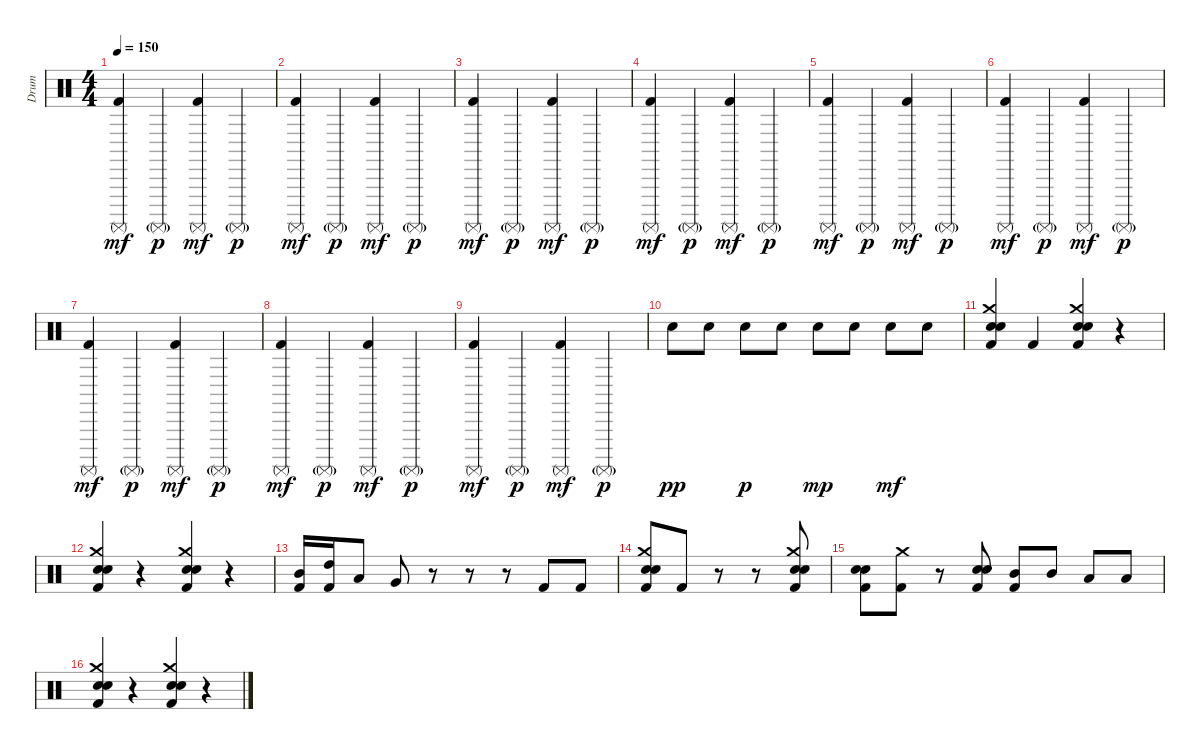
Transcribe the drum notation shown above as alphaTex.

\track ("Drum" "Drum") {instrument percussion}
\staff {score}
\articulation defaults
\ts (4 4)
\tempo 150
\clef neutral
\ks c
("Surdo (mute)" "Kick (hit) 2").4{dy mf} "Surdo (mute)"{g}.4{dy p} ("Surdo (mute)" "Kick (hit) 2").4{dy mf} "Surdo (mute)"{g}.4{dy p} |
("Surdo (mute)" "Kick (hit) 2").4{dy mf} "Surdo (mute)"{g}.4{dy p} ("Surdo (mute)" "Kick (hit) 2").4{dy mf} "Surdo (mute)"{g}.4{dy p} |
("Surdo (mute)" "Kick (hit) 2").4{dy mf} "Surdo (mute)"{g}.4{dy p} ("Surdo (mute)" "Kick (hit) 2").4{dy mf} "Surdo (mute)"{g}.4{dy p} |
("Surdo (mute)" "Kick (hit) 2").4{dy mf} "Surdo (mute)"{g}.4{dy p} ("Surdo (mute)" "Kick (hit) 2").4{dy mf} "Surdo (mute)"{g}.4{dy p} |
("Surdo (mute)" "Kick (hit) 2").4{dy mf} "Surdo (mute)"{g}.4{dy p} ("Surdo (mute)" "Kick (hit) 2").4{dy mf} "Surdo (mute)"{g}.4{dy p} |
("Surdo (mute)" "Kick (hit) 2").4{dy mf} "Surdo (mute)"{g}.4{dy p} ("Surdo (mute)" "Kick (hit) 2").4{dy mf} "Surdo (mute)"{g}.4{dy p} |
("Surdo (mute)" "Kick (hit) 2").4{dy mf} "Surdo (mute)"{g}.4{dy p} ("Surdo (mute)" "Kick (hit) 2").4{dy mf} "Surdo (mute)"{g}.4{dy p} |
("Surdo (mute)" "Kick (hit) 2").4{dy mf} "Surdo (mute)"{g}.4{dy p} ("Surdo (mute)" "Kick (hit) 2").4{dy mf} "Surdo (mute)"{g}.4{dy p} |
("Surdo (mute)" "Kick (hit) 2").4{dy mf} "Surdo (mute)"{g}.4{dy p} ("Surdo (mute)" "Kick (hit) 2").4{dy mf} "Surdo (mute)"{g}.4{dy p} |
"Electric Snare (hit)".8{dy pp} "Electric Snare (hit)".8 "Electric Snare (hit)".8{dy p} "Electric Snare (hit)".8 "Electric Snare (hit)".8{dy mp} "Electric Snare (hit)".8 "Electric Snare (hit)".8{dy mf} "Electric Snare (hit)".8 |
("Crash medium (hit)" "Snare (hit) 2" "Electric Snare (hit)" "Kick (hit) 2").4 "Kick (hit) 2".4 ("Crash medium (hit)" "Snare (hit) 2" "Electric Snare (hit)" "Kick (hit) 2").4 r.4 |
("Crash medium (hit)" "Snare (hit) 2" "Electric Snare (hit)" "Kick (hit) 2").4 r.4 ("Crash medium (hit)" "Snare (hit) 2" "Electric Snare (hit)" "Kick (hit) 2").4 r.4 |
("Mid Tom (hit)" "Kick (hit) 2").16 ("High Tom (hit)" "Kick (hit) 2").16 "Low Tom (hit)".8 "Very Low Tom (hit)".8 r.8 r.8 r.8 "Kick (hit) 2".8 "Kick (hit) 2".8 |
("Crash medium (hit)" "Snare (hit) 2" "Electric Snare (hit)" "Kick (hit) 2").8 "Kick (hit) 2".8 r.8 r.8 ("Crash medium (hit)" "Snare (hit) 2" "Electric Snare (hit)" "Kick (hit) 2").8 |
("Snare (hit) 2" "Electric Snare (hit)" "Kick (hit) 2").8 ("Crash medium (hit)" "Kick (hit) 2").8 r.8 ("Snare (hit) 2" "Electric Snare (hit)" "Kick (hit) 2").8 ("Mid Tom (hit)" "Kick (hit) 2").8 "Mid Tom (hit)".8 "Low Tom (hit)".8 "Low Tom (hit)".8 |
("Crash medium (hit)" "Snare (hit) 2" "Electric Snare (hit)" "Kick (hit) 2").4 r.4 ("Crash medium (hit)" "Snare (hit) 2" "Electric Snare (hit)" "Kick (hit) 2").4 r.4
